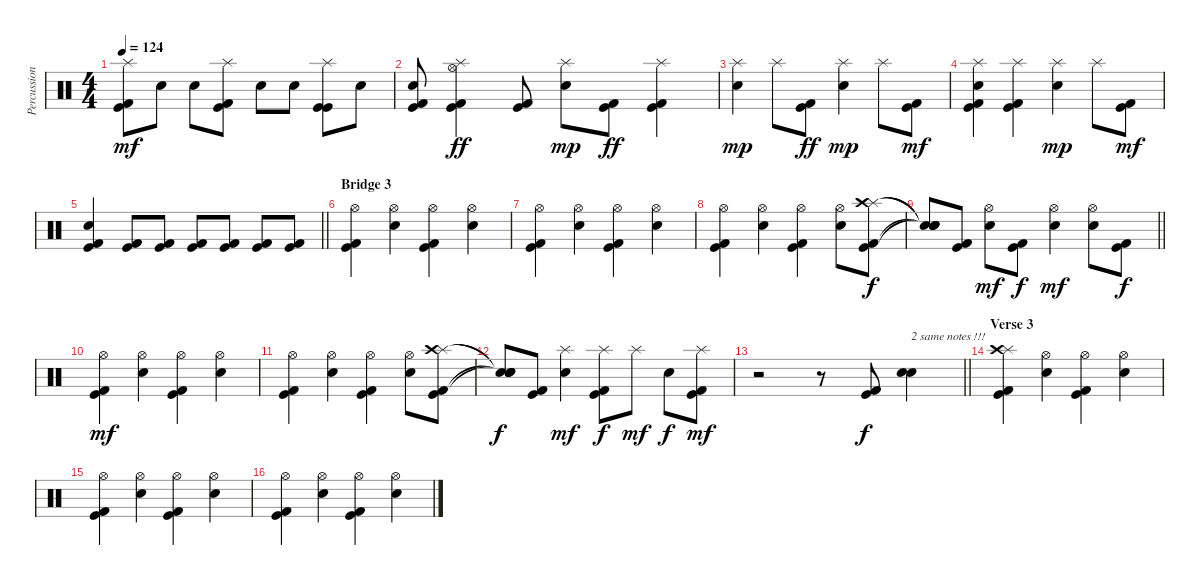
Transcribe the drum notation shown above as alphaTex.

\track ("Percussion" "Percussion") {instrument percussion}
\staff {score}
\articulation defaults
\ts (4 4)
\tempo 124
\clef neutral
\ks c
("Splash (hit)" "Kick (hit)" "Kick (hit) 2").8{dy mf} "Snare (hit) 2".8 "Snare (hit) 2".8 ("Splash (hit)" "Kick (hit)" "Kick (hit) 2").8 "Snare (hit) 2".8 "Snare (hit) 2".8 ("Splash (hit)" "Kick (hit)" "Kick (hit)").8 "Snare (hit) 2".8 |
("Snare (hit) 2" "Kick (hit) 2" "Kick (hit)").8 ("Hi-Hat (open)" "Splash (hit)" "Kick (hit)" "Kick (hit) 2").4{dy ff} ("Kick (hit)" "Kick (hit) 2").8 ("Snare (hit) 2" "Splash (hit)").8{dy mp} ("Kick (hit)" "Kick (hit) 2").8{dy ff} ("Splash (hit)" "Kick (hit)" "Kick (hit) 2").4 |
("Snare (hit) 2" "Splash (hit)").4{dy mp} "Splash (hit)".8 ("Kick (hit)" "Kick (hit) 2").8{dy ff} ("Snare (hit) 2" "Splash (hit)").4{dy mp} "Splash (hit)".8 ("Kick (hit)" "Kick (hit) 2").8{dy mf} |
("Snare (hit) 2" "Splash (hit)" "Kick (hit)" "Kick (hit) 2").4 ("Splash (hit)" "Kick (hit) 2" "Kick (hit)").4 ("Snare (hit) 2" "Splash (hit)").4{dy mp} "Splash (hit)".8 ("Kick (hit)" "Kick (hit) 2").8{dy mf} |
\barLineRight lightlight
("Snare (hit) 2" "Kick (hit)" "Kick (hit) 2").4 ("Kick (hit)" "Kick (hit) 2").8 ("Kick (hit)" "Kick (hit) 2").8 ("Kick (hit)" "Kick (hit) 2").8 ("Kick (hit)" "Kick (hit) 2").8 ("Kick (hit)" "Kick (hit) 2").8 ("Kick (hit)" "Kick (hit) 2").8 |
\section ("" "Bridge 3")
("Hi-Hat (open)" "Kick (hit)" "Kick (hit) 2").4 ("Hi-Hat (open)" "Snare (hit) 2").4 ("Hi-Hat (open)" "Kick (hit)" "Kick (hit) 2").4 ("Hi-Hat (open)" "Snare (hit) 2").4 |
("Hi-Hat (open)" "Kick (hit)" "Kick (hit) 2").4 ("Hi-Hat (open)" "Snare (hit) 2").4 ("Hi-Hat (open)" "Kick (hit)" "Kick (hit) 2").4 ("Hi-Hat (open)" "Snare (hit) 2").4 |
("Hi-Hat (open)" "Kick (hit)" "Kick (hit) 2").4 ("Hi-Hat (open)" "Snare (hit) 2").4 ("Hi-Hat (open)" "Kick (hit)" "Kick (hit) 2").4 ("Hi-Hat (open)" "Snare (hit) 2").8 ("Splash (hit)" "Crash high (hit)" "Kick (hit)" "Kick (hit) 2").8{dy f} |
\barLineRight lightlight
("Snare (hit)"{t} "Snare (hit)"{t} "Snare (hit)"{t} "Snare (hit)"{t}).8 ("Kick (hit)" "Kick (hit) 2").8 ("Hi-Hat (open)" "Snare (hit) 2").8{dy mf} ("Kick (hit)" "Kick (hit) 2").8{dy f} ("Hi-Hat (open)" "Snare (hit) 2").4{dy mf} ("Hi-Hat (open)" "Snare (hit) 2").8 ("Kick (hit)" "Kick (hit) 2").8{dy f} |
("Hi-Hat (open)" "Kick (hit)" "Kick (hit) 2").4{dy mf} ("Hi-Hat (open)" "Snare (hit) 2").4 ("Hi-Hat (open)" "Kick (hit)" "Kick (hit) 2").4 ("Hi-Hat (open)" "Snare (hit) 2").4 |
("Hi-Hat (open)" "Kick (hit)" "Kick (hit) 2").4 ("Hi-Hat (open)" "Snare (hit) 2").4 ("Hi-Hat (open)" "Kick (hit)" "Kick (hit) 2").4 ("Hi-Hat (open)" "Snare (hit) 2").8 ("Splash (hit)" "Crash high (hit)" "Kick (hit)" "Kick (hit) 2").8 |
("Snare (hit)"{t} "Snare (hit)"{t} "Snare (hit)"{t} "Snare (hit)"{t}).8{dy f} ("Kick (hit)" "Kick (hit) 2").8 ("Splash (hit)" "Snare (hit) 2").4{dy mf} ("Splash (hit)" "Kick (hit)" "Kick (hit) 2").8{dy f} "Splash (hit)".8{dy mf} "Snare (hit) 2".8{dy f} ("Splash (hit)" "Kick (hit)" "Kick (hit) 2").8{dy mf} |
\barLineRight lightlight
r.2 r.8 ("Kick (hit)" "Kick (hit) 2").8{dy f} ("Snare (hit) 2" "Snare (hit) 2").4{bd 60 txt "2 same notes !!!"} |
\section ("" "Verse 3")
("Splash (hit)" "Crash high (hit)" "Kick (hit)" "Kick (hit) 2").4 ("Hi-Hat (open)" "Snare (hit) 2").4 ("Hi-Hat (open)" "Kick (hit)" "Kick (hit) 2").4 ("Hi-Hat (open)" "Snare (hit) 2").4 |
("Hi-Hat (open)" "Kick (hit)" "Kick (hit) 2").4 ("Hi-Hat (open)" "Snare (hit) 2").4 ("Hi-Hat (open)" "Kick (hit)" "Kick (hit) 2").4 ("Hi-Hat (open)" "Snare (hit) 2").4 |
("Hi-Hat (open)" "Kick (hit)" "Kick (hit) 2").4 ("Hi-Hat (open)" "Snare (hit) 2").4 ("Hi-Hat (open)" "Kick (hit)" "Kick (hit) 2").4 ("Hi-Hat (open)" "Snare (hit) 2").4
